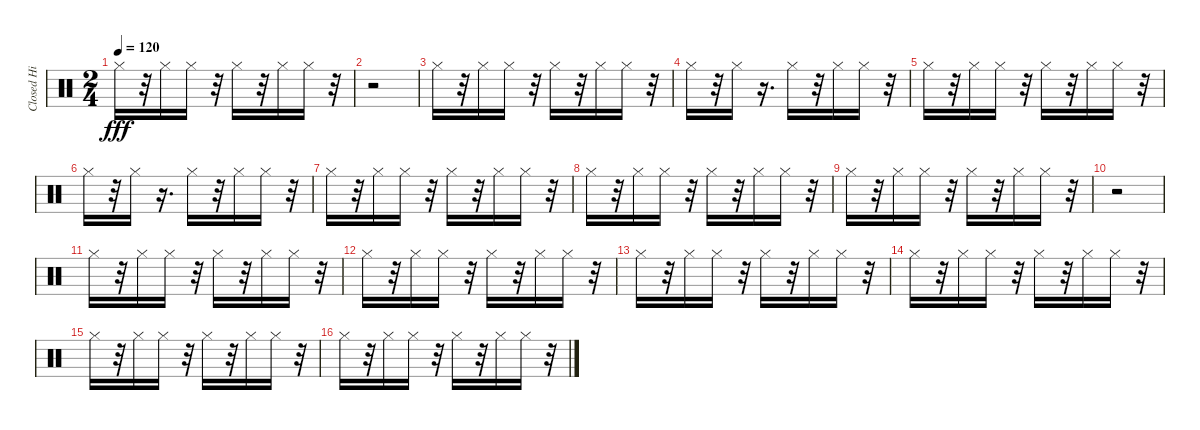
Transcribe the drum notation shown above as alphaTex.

\track ("Closed Hi Hat (1) (1) (1) (1)" "Closed Hi ") {instrument percussion}
\staff {score}
\articulation defaults
\ts (2 4)
\tempo 120
\clef neutral
\ks c "Hi-Hat (closed)".16{dy fff}
r.32 "Hi-Hat (closed)".16 "Hi-Hat (closed)".16 r.32 "Hi-Hat (closed)".16 r.32 "Hi-Hat (closed)".16 "Hi-Hat (closed)".16 r.32 |
r.2 |
"Hi-Hat (closed)".16 r.32 "Hi-Hat (closed)".16 "Hi-Hat (closed)".16 r.32 "Hi-Hat (closed)".16 r.32 "Hi-Hat (closed)".16 "Hi-Hat (closed)".16 r.32 |
"Hi-Hat (closed)".16 r.32 "Hi-Hat (closed)".16 r.16{d} "Hi-Hat (closed)".16 r.32 "Hi-Hat (closed)".16 "Hi-Hat (closed)".16 r.32 |
"Hi-Hat (closed)".16 r.32 "Hi-Hat (closed)".16 "Hi-Hat (closed)".16 r.32 "Hi-Hat (closed)".16 r.32 "Hi-Hat (closed)".16 "Hi-Hat (closed)".16 r.32 |
"Hi-Hat (closed)".16 r.32 "Hi-Hat (closed)".16 r.16{d} "Hi-Hat (closed)".16 r.32 "Hi-Hat (closed)".16 "Hi-Hat (closed)".16 r.32 |
"Hi-Hat (closed)".16 r.32 "Hi-Hat (closed)".16 "Hi-Hat (closed)".16 r.32 "Hi-Hat (closed)".16 r.32 "Hi-Hat (closed)".16 "Hi-Hat (closed)".16 r.32 |
"Hi-Hat (closed)".16 r.32 "Hi-Hat (closed)".16 "Hi-Hat (closed)".16 r.32 "Hi-Hat (closed)".16 r.32 "Hi-Hat (closed)".16 "Hi-Hat (closed)".16 r.32 |
"Hi-Hat (closed)".16 r.32 "Hi-Hat (closed)".16 "Hi-Hat (closed)".16 r.32 "Hi-Hat (closed)".16 r.32 "Hi-Hat (closed)".16 "Hi-Hat (closed)".16 r.32 |
r.2 |
"Hi-Hat (closed)".16 r.32 "Hi-Hat (closed)".16 "Hi-Hat (closed)".16 r.32 "Hi-Hat (closed)".16 r.32 "Hi-Hat (closed)".16 "Hi-Hat (closed)".16 r.32 |
"Hi-Hat (closed)".16 r.32 "Hi-Hat (closed)".16 "Hi-Hat (closed)".16 r.32 "Hi-Hat (closed)".16 r.32 "Hi-Hat (closed)".16 "Hi-Hat (closed)".16 r.32 |
"Hi-Hat (closed)".16 r.32 "Hi-Hat (closed)".16 "Hi-Hat (closed)".16 r.32 "Hi-Hat (closed)".16 r.32 "Hi-Hat (closed)".16 "Hi-Hat (closed)".16 r.32 |
"Hi-Hat (closed)".16 r.32 "Hi-Hat (closed)".16 "Hi-Hat (closed)".16 r.32 "Hi-Hat (closed)".16 r.32 "Hi-Hat (closed)".16 "Hi-Hat (closed)".16 r.32 |
"Hi-Hat (closed)".16 r.32 "Hi-Hat (closed)".16 "Hi-Hat (closed)".16 r.32 "Hi-Hat (closed)".16 r.32 "Hi-Hat (closed)".16 "Hi-Hat (closed)".16 r.32 |
"Hi-Hat (closed)".16 r.32 "Hi-Hat (closed)".16 "Hi-Hat (closed)".16 r.32 "Hi-Hat (closed)".16 r.32 "Hi-Hat (closed)".16 "Hi-Hat (closed)".16 r.32
